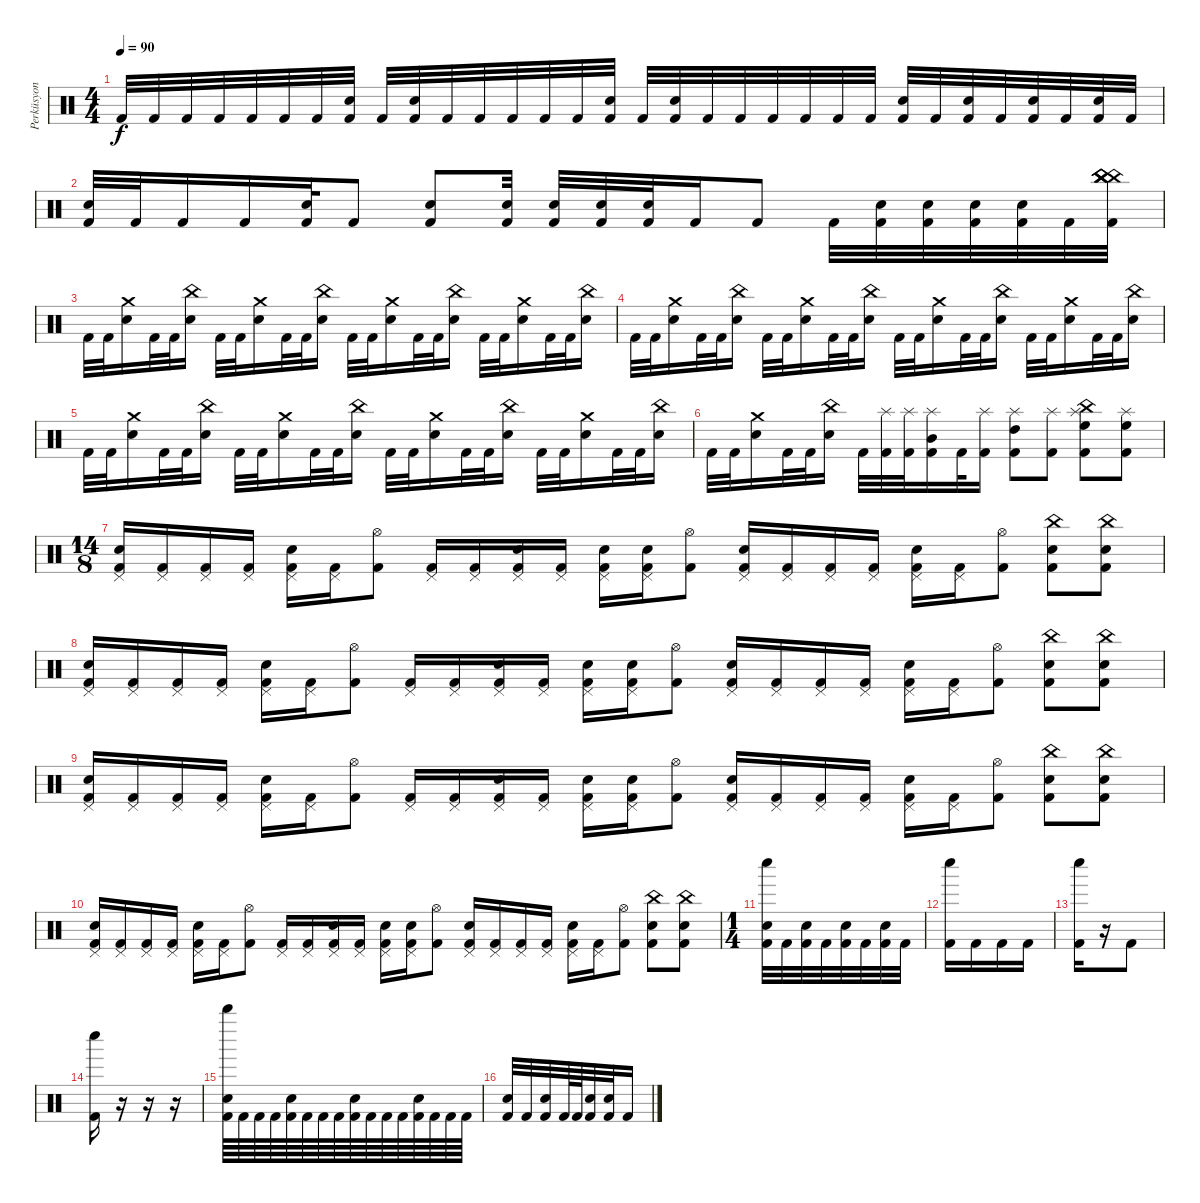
\track ("Perküsyon" "Perküsyon") {instrument percussion}
\staff {score}
\articulation defaults
\ts (4 4)
\tempo 90
\clef neutral
\ks c "Kick (hit) 2".32{dy f} "Kick (hit) 2".32 "Kick (hit) 2".32 "Kick (hit) 2".32 "Kick (hit) 2".32 "Kick (hit) 2".32 "Kick (hit) 2".32
("Electric Snare (hit)" "Kick (hit) 2").32 "Kick (hit) 2".32 ("Electric Snare (hit)" "Kick (hit) 2").32 "Kick (hit) 2".32 "Kick (hit) 2".32 "Kick (hit) 2".32 "Kick (hit) 2".32 "Kick (hit) 2".32 ("Electric Snare (hit)" "Kick (hit) 2").32 "Kick (hit) 2".32 ("Electric Snare (hit)" "Kick (hit) 2").32 "Kick (hit) 2".32 "Kick (hit) 2".32 "Kick (hit) 2".32 "Kick (hit) 2".32 "Kick (hit) 2".32 "Kick (hit) 2".32 ("Electric Snare (hit)" "Kick (hit) 2").32 "Kick (hit) 2".32 ("Electric Snare (hit)" "Kick (hit) 2").32 "Kick (hit) 2".32 ("Electric Snare (hit)" "Kick (hit) 2").32 "Kick (hit) 2".32 ("Electric Snare (hit)" "Kick (hit) 2").32 "Kick (hit) 2".32 |
("Electric Snare (hit)" "Kick (hit) 2").32 "Kick (hit) 2".32 "Kick (hit) 2".16 "Kick (hit) 2".16 ("Electric Snare (hit)" "Kick (hit) 2").32 "Kick (hit) 2".8 ("Electric Snare (hit)" "Kick (hit) 2").8 ("Electric Snare (hit)" "Kick (hit) 2").32 ("Electric Snare (hit)" "Kick (hit) 2").32 ("Electric Snare (hit)" "Kick (hit) 2").32 ("Electric Snare (hit)" "Kick (hit) 2").32 "Kick (hit) 2".16 "Kick (hit) 2".8 "Kick (hit) 2".32 ("Electric Snare (hit)" "Kick (hit) 2").32 ("Electric Snare (hit)" "Kick (hit) 2").32 ("Electric Snare (hit)" "Kick (hit) 2").32 ("Electric Snare (hit)" "Kick (hit) 2").32 "Kick (hit) 2".32 ("China (hit)" "China (hit)" "China (hit)" "China (hit)" "China (hit)" "Kick (hit) 2").32 |
"Kick (hit) 2".32 "Kick (hit) 2".32 ("Crash medium (hit)" "Electric Snare (hit)").16 "Kick (hit) 2".32 "Kick (hit) 2".32 ("China (hit)" "Electric Snare (hit)").16 "Kick (hit) 2".32 "Kick (hit) 2".32 ("Crash medium (hit)" "Electric Snare (hit)").16 "Kick (hit) 2".32 "Kick (hit) 2".32 ("China (hit)" "Electric Snare (hit)").16 "Kick (hit) 2".32 "Kick (hit) 2".32 ("Crash medium (hit)" "Electric Snare (hit)").16 "Kick (hit) 2".32 "Kick (hit) 2".32 ("China (hit)" "Electric Snare (hit)").16 "Kick (hit) 2".32 "Kick (hit) 2".32 ("Crash medium (hit)" "Electric Snare (hit)").16 "Kick (hit) 2".32 "Kick (hit) 2".32 ("China (hit)" "Electric Snare (hit)").16 |
"Kick (hit) 2".32 "Kick (hit) 2".32 ("Crash medium (hit)" "Electric Snare (hit)").16 "Kick (hit) 2".32 "Kick (hit) 2".32 ("China (hit)" "Electric Snare (hit)").16 "Kick (hit) 2".32 "Kick (hit) 2".32 ("Crash medium (hit)" "Electric Snare (hit)").16 "Kick (hit) 2".32 "Kick (hit) 2".32 ("China (hit)" "Electric Snare (hit)").16 "Kick (hit) 2".32 "Kick (hit) 2".32 ("Crash medium (hit)" "Electric Snare (hit)").16 "Kick (hit) 2".32 "Kick (hit) 2".32 ("China (hit)" "Electric Snare (hit)").16 "Kick (hit) 2".32 "Kick (hit) 2".32 ("Crash medium (hit)" "Electric Snare (hit)").16 "Kick (hit) 2".32 "Kick (hit) 2".32 ("China (hit)" "Electric Snare (hit)").16 |
"Kick (hit) 2".32 "Kick (hit) 2".32 ("Crash medium (hit)" "Electric Snare (hit)").16 "Kick (hit) 2".32 "Kick (hit) 2".32 ("China (hit)" "Electric Snare (hit)").16 "Kick (hit) 2".32 "Kick (hit) 2".32 ("Crash medium (hit)" "Electric Snare (hit)").16 "Kick (hit) 2".32 "Kick (hit) 2".32 ("China (hit)" "Electric Snare (hit)").16 "Kick (hit) 2".32 "Kick (hit) 2".32 ("Crash medium (hit)" "Electric Snare (hit)").16 "Kick (hit) 2".32 "Kick (hit) 2".32 ("China (hit)" "Electric Snare (hit)").16 "Kick (hit) 2".32 "Kick (hit) 2".32 ("Crash medium (hit)" "Electric Snare (hit)").16 "Kick (hit) 2".32 "Kick (hit) 2".32 ("China (hit)" "Electric Snare (hit)").16 |
"Kick (hit) 2".32 "Kick (hit) 2".32 ("Crash medium (hit)" "Electric Snare (hit)").16 "Kick (hit) 2".32 "Kick (hit) 2".32 ("China (hit)" "Electric Snare (hit)").16 "Kick (hit) 2".32 ("Splash (hit)" "Kick (hit) 2").32 ("Splash (hit)" "Kick (hit) 2").32 ("Splash (hit)" "Mid Tom (hit)" "Kick (hit) 2").16 "Kick (hit) 2".32 ("Splash (hit)" "Kick (hit) 2").16 ("Splash (hit)" "High Tom (hit)" "Kick (hit) 2").8 ("Splash (hit)" "Kick (hit) 2").8 ("Splash (hit)" "High Floor Tom (hit)" "China (hit)" "Kick (hit) 2").8 ("Splash (hit)" "High Floor Tom (hit)" "Kick (hit) 2").8 |
\ts (14 8)
("Pedal Hi-Hat (hit)" "Electric Snare (hit)" "Kick (hit) 2").16 ("Pedal Hi-Hat (hit)" "Kick (hit) 2").16 ("Pedal Hi-Hat (hit)" "Kick (hit) 2").16 ("Pedal Hi-Hat (hit)" "Kick (hit) 2").16 ("Pedal Hi-Hat (hit)" "Electric Snare (hit)" "Kick (hit) 2").16 ("Pedal Hi-Hat (hit)" "Kick (hit) 2").16 ("Hi-Hat (open)" "Kick (hit) 2").8 ("Pedal Hi-Hat (hit)" "Kick (hit) 2").16 ("Pedal Hi-Hat (hit)" "Kick (hit) 2").16 ("Pedal Hi-Hat (hit)" "Electric Snare (hit)" "Kick (hit) 2").16 ("Pedal Hi-Hat (hit)" "Kick (hit) 2").16 ("Pedal Hi-Hat (hit)" "Electric Snare (hit)" "Kick (hit) 2").16 ("Pedal Hi-Hat (hit)" "Electric Snare (hit)" "Kick (hit) 2").16 ("Hi-Hat (open)" "Kick (hit) 2").8 ("Pedal Hi-Hat (hit)" "Electric Snare (hit)" "Kick (hit) 2").16 ("Pedal Hi-Hat (hit)" "Kick (hit) 2").16 ("Pedal Hi-Hat (hit)" "Kick (hit) 2").16 ("Pedal Hi-Hat (hit)" "Kick (hit) 2").16 ("Pedal Hi-Hat (hit)" "Electric Snare (hit)" "Kick (hit) 2").16 ("Pedal Hi-Hat (hit)" "Kick (hit) 2").16 ("Hi-Hat (open)" "Kick (hit) 2").8 ("China (hit)" "Electric Snare (hit)" "Kick (hit) 2").8 ("China (hit)" "Electric Snare (hit)" "Kick (hit) 2").8 |
("Pedal Hi-Hat (hit)" "Electric Snare (hit)" "Kick (hit) 2").16 ("Pedal Hi-Hat (hit)" "Kick (hit) 2").16 ("Pedal Hi-Hat (hit)" "Kick (hit) 2").16 ("Pedal Hi-Hat (hit)" "Kick (hit) 2").16 ("Pedal Hi-Hat (hit)" "Electric Snare (hit)" "Kick (hit) 2").16 ("Pedal Hi-Hat (hit)" "Kick (hit) 2").16 ("Hi-Hat (open)" "Kick (hit) 2").8 ("Pedal Hi-Hat (hit)" "Kick (hit) 2").16 ("Pedal Hi-Hat (hit)" "Kick (hit) 2").16 ("Pedal Hi-Hat (hit)" "Electric Snare (hit)" "Kick (hit) 2").16 ("Pedal Hi-Hat (hit)" "Kick (hit) 2").16 ("Pedal Hi-Hat (hit)" "Electric Snare (hit)" "Kick (hit) 2").16 ("Pedal Hi-Hat (hit)" "Electric Snare (hit)" "Kick (hit) 2").16 ("Hi-Hat (open)" "Kick (hit) 2").8 ("Pedal Hi-Hat (hit)" "Electric Snare (hit)" "Kick (hit) 2").16 ("Pedal Hi-Hat (hit)" "Kick (hit) 2").16 ("Pedal Hi-Hat (hit)" "Kick (hit) 2").16 ("Pedal Hi-Hat (hit)" "Kick (hit) 2").16 ("Pedal Hi-Hat (hit)" "Electric Snare (hit)" "Kick (hit) 2").16 ("Pedal Hi-Hat (hit)" "Kick (hit) 2").16 ("Hi-Hat (open)" "Kick (hit) 2").8 ("China (hit)" "Electric Snare (hit)" "Kick (hit) 2").8 ("China (hit)" "Electric Snare (hit)" "Kick (hit) 2").8 |
("Pedal Hi-Hat (hit)" "Electric Snare (hit)" "Kick (hit) 2").16 ("Pedal Hi-Hat (hit)" "Kick (hit) 2").16 ("Pedal Hi-Hat (hit)" "Kick (hit) 2").16 ("Pedal Hi-Hat (hit)" "Kick (hit) 2").16 ("Pedal Hi-Hat (hit)" "Electric Snare (hit)" "Kick (hit) 2").16 ("Pedal Hi-Hat (hit)" "Kick (hit) 2").16 ("Hi-Hat (open)" "Kick (hit) 2").8 ("Pedal Hi-Hat (hit)" "Kick (hit) 2").16 ("Pedal Hi-Hat (hit)" "Kick (hit) 2").16 ("Pedal Hi-Hat (hit)" "Electric Snare (hit)" "Kick (hit) 2").16 ("Pedal Hi-Hat (hit)" "Kick (hit) 2").16 ("Pedal Hi-Hat (hit)" "Electric Snare (hit)" "Kick (hit) 2").16 ("Pedal Hi-Hat (hit)" "Electric Snare (hit)" "Kick (hit) 2").16 ("Hi-Hat (open)" "Kick (hit) 2").8 ("Pedal Hi-Hat (hit)" "Electric Snare (hit)" "Kick (hit) 2").16 ("Pedal Hi-Hat (hit)" "Kick (hit) 2").16 ("Pedal Hi-Hat (hit)" "Kick (hit) 2").16 ("Pedal Hi-Hat (hit)" "Kick (hit) 2").16 ("Pedal Hi-Hat (hit)" "Electric Snare (hit)" "Kick (hit) 2").16 ("Pedal Hi-Hat (hit)" "Kick (hit) 2").16 ("Hi-Hat (open)" "Kick (hit) 2").8 ("China (hit)" "Electric Snare (hit)" "Kick (hit) 2").8 ("China (hit)" "Electric Snare (hit)" "Kick (hit) 2").8 |
("Pedal Hi-Hat (hit)" "Electric Snare (hit)" "Kick (hit) 2").16 ("Pedal Hi-Hat (hit)" "Kick (hit) 2").16 ("Pedal Hi-Hat (hit)" "Kick (hit) 2").16 ("Pedal Hi-Hat (hit)" "Kick (hit) 2").16 ("Pedal Hi-Hat (hit)" "Electric Snare (hit)" "Kick (hit) 2").16 ("Pedal Hi-Hat (hit)" "Kick (hit) 2").16 ("Hi-Hat (open)" "Kick (hit) 2").8 ("Pedal Hi-Hat (hit)" "Kick (hit) 2").16 ("Pedal Hi-Hat (hit)" "Kick (hit) 2").16 ("Pedal Hi-Hat (hit)" "Electric Snare (hit)" "Kick (hit) 2").16 ("Pedal Hi-Hat (hit)" "Kick (hit) 2").16 ("Pedal Hi-Hat (hit)" "Electric Snare (hit)" "Kick (hit) 2").16 ("Pedal Hi-Hat (hit)" "Electric Snare (hit)" "Kick (hit) 2").16 ("Hi-Hat (open)" "Kick (hit) 2").8 ("Pedal Hi-Hat (hit)" "Electric Snare (hit)" "Kick (hit) 2").16 ("Pedal Hi-Hat (hit)" "Kick (hit) 2").16 ("Pedal Hi-Hat (hit)" "Kick (hit) 2").16 ("Pedal Hi-Hat (hit)" "Kick (hit) 2").16 ("Pedal Hi-Hat (hit)" "Electric Snare (hit)" "Kick (hit) 2").16 ("Pedal Hi-Hat (hit)" "Kick (hit) 2").16 ("Hi-Hat (open)" "Kick (hit) 2").8 ("China (hit)" "Electric Snare (hit)" "Kick (hit) 2").8 ("China (hit)" "Electric Snare (hit)" "Kick (hit) 2").8 |
\ts (1 4)
("Whistle low (hit)" "Electric Snare (hit)" "Kick (hit) 2").32 "Kick (hit) 2".32 ("Electric Snare (hit)" "Kick (hit) 2").32 "Kick (hit) 2".32 ("Electric Snare (hit)" "Kick (hit) 2").32 "Kick (hit) 2".32 ("Electric Snare (hit)" "Kick (hit) 2").32 "Kick (hit) 2".32 |
("Whistle low (hit)" "Kick (hit) 2").16 "Kick (hit) 2".16 "Kick (hit) 2".16 "Kick (hit) 2".16 |
("Whistle low (hit)" "Kick (hit) 2").16 r.16 "Kick (hit) 2".8 |
("Whistle low (hit)" "Kick (hit) 2").16 r.16 r.16 r.16 |
("Whistle high (hit)" "Electric Snare (hit)" "Kick (hit) 2").64 "Kick (hit) 2".64 "Kick (hit) 2".64 "Kick (hit) 2".64 ("Electric Snare (hit)" "Kick (hit) 2").64 "Kick (hit) 2".64 "Kick (hit) 2".64 "Kick (hit) 2".64 ("Electric Snare (hit)" "Kick (hit) 2").64 "Kick (hit) 2".64 "Kick (hit) 2".64 "Kick (hit) 2".64 ("Electric Snare (hit)" "Kick (hit) 2").64 "Kick (hit) 2".64 "Kick (hit) 2".64 "Kick (hit) 2".64 |
("Electric Snare (hit)" "Kick (hit) 2").32 "Kick (hit) 2".32 ("Electric Snare (hit)" "Kick (hit) 2").32 "Kick (hit) 2".64 "Kick (hit) 2".64 ("Electric Snare (hit)" "Kick (hit) 2").32 ("Electric Snare (hit)" "Kick (hit) 2").32 "Kick (hit) 2".16
